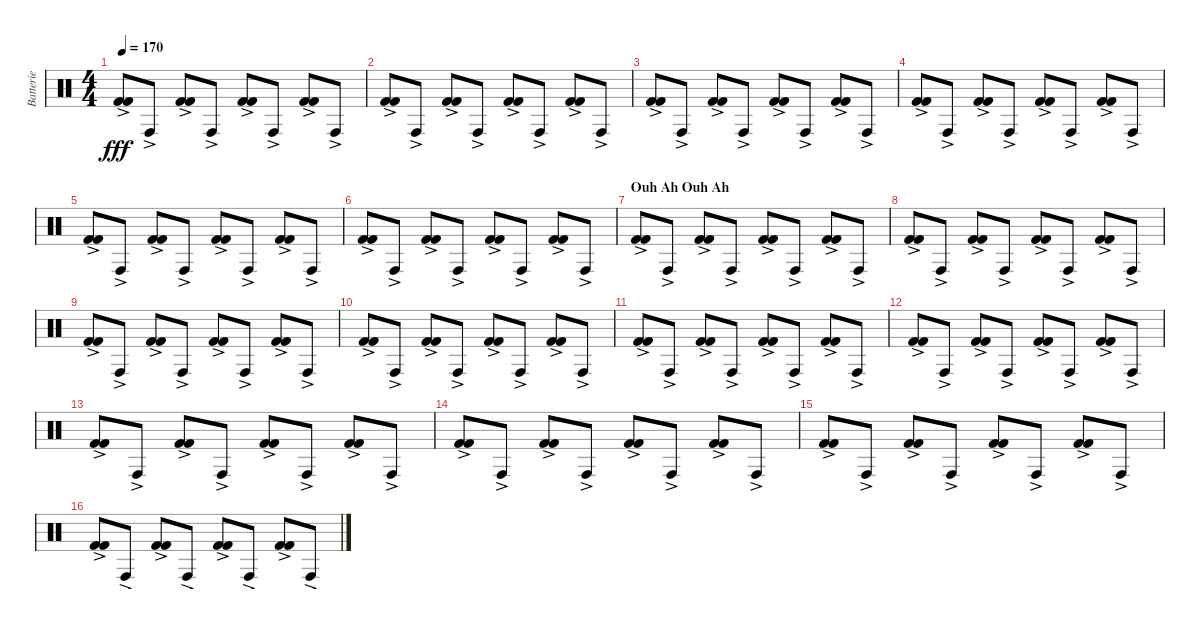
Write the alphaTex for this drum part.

\track ("Batterie" "Batterie") {instrument percussion}
\staff {score}
\articulation defaults
\ts (4 4)
\tempo 170
\clef neutral
\ks c
("Kick (hit) 2"{ac} "Kick (hit) 2"{ac}).8{dy fff} "Conga high (hit)"{ac}.8 ("Kick (hit) 2"{ac} "Kick (hit) 2"{ac}).8 "Conga high (hit)"{ac}.8 ("Kick (hit) 2"{ac} "Kick (hit) 2"{ac}).8 "Conga high (hit)"{ac}.8 ("Kick (hit) 2"{ac} "Kick (hit) 2"{ac}).8 "Conga high (hit)"{ac}.8 |
("Kick (hit) 2"{ac} "Kick (hit) 2"{ac}).8 "Conga high (hit)"{ac}.8 ("Kick (hit) 2"{ac} "Kick (hit) 2"{ac}).8 "Conga high (hit)"{ac}.8 ("Kick (hit) 2"{ac} "Kick (hit) 2"{ac}).8 "Conga high (hit)"{ac}.8 ("Kick (hit) 2"{ac} "Kick (hit) 2"{ac}).8 "Conga high (hit)"{ac}.8 |
("Kick (hit) 2"{ac} "Kick (hit) 2"{ac}).8 "Conga high (hit)"{ac}.8 ("Kick (hit) 2"{ac} "Kick (hit) 2"{ac}).8 "Conga high (hit)"{ac}.8 ("Kick (hit) 2"{ac} "Kick (hit) 2"{ac}).8 "Conga high (hit)"{ac}.8 ("Kick (hit) 2"{ac} "Kick (hit) 2"{ac}).8 "Conga high (hit)"{ac}.8 |
("Kick (hit) 2"{ac} "Kick (hit) 2"{ac}).8 "Conga high (hit)"{ac}.8 ("Kick (hit) 2"{ac} "Kick (hit) 2"{ac}).8 "Conga high (hit)"{ac}.8 ("Kick (hit) 2"{ac} "Kick (hit) 2"{ac}).8 "Conga high (hit)"{ac}.8 ("Kick (hit) 2"{ac} "Kick (hit) 2"{ac}).8 "Conga high (hit)"{ac}.8 |
("Kick (hit) 2"{ac} "Kick (hit) 2"{ac}).8 "Conga high (hit)"{ac}.8 ("Kick (hit) 2"{ac} "Kick (hit) 2"{ac}).8 "Conga high (hit)"{ac}.8 ("Kick (hit) 2"{ac} "Kick (hit) 2"{ac}).8 "Conga high (hit)"{ac}.8 ("Kick (hit) 2"{ac} "Kick (hit) 2"{ac}).8 "Conga high (hit)"{ac}.8 |
("Kick (hit) 2"{ac} "Kick (hit) 2"{ac}).8 "Conga high (hit)"{ac}.8 ("Kick (hit) 2"{ac} "Kick (hit) 2"{ac}).8 "Conga high (hit)"{ac}.8 ("Kick (hit) 2"{ac} "Kick (hit) 2"{ac}).8 "Conga high (hit)"{ac}.8 ("Kick (hit) 2"{ac} "Kick (hit) 2"{ac}).8 "Conga high (hit)"{ac}.8 |
\section ("" "Ouh Ah Ouh Ah")
("Kick (hit) 2"{ac} "Kick (hit) 2"{ac}).8 "Conga high (hit)"{ac}.8 ("Kick (hit) 2"{ac} "Kick (hit) 2"{ac}).8 "Conga high (hit)"{ac}.8 ("Kick (hit) 2"{ac} "Kick (hit) 2"{ac}).8 "Conga high (hit)"{ac}.8 ("Kick (hit) 2"{ac} "Kick (hit) 2"{ac}).8 "Conga high (hit)"{ac}.8 |
("Kick (hit) 2"{ac} "Kick (hit) 2"{ac}).8 "Conga high (hit)"{ac}.8 ("Kick (hit) 2"{ac} "Kick (hit) 2"{ac}).8 "Conga high (hit)"{ac}.8 ("Kick (hit) 2"{ac} "Kick (hit) 2"{ac}).8 "Conga high (hit)"{ac}.8 ("Kick (hit) 2"{ac} "Kick (hit) 2"{ac}).8 "Conga high (hit)"{ac}.8 |
("Kick (hit) 2"{ac} "Kick (hit) 2"{ac}).8 "Conga high (hit)"{ac}.8 ("Kick (hit) 2"{ac} "Kick (hit) 2"{ac}).8 "Conga high (hit)"{ac}.8 ("Kick (hit) 2"{ac} "Kick (hit) 2"{ac}).8 "Conga high (hit)"{ac}.8 ("Kick (hit) 2"{ac} "Kick (hit) 2"{ac}).8 "Conga high (hit)"{ac}.8 |
("Kick (hit) 2"{ac} "Kick (hit) 2"{ac}).8 "Conga high (hit)"{ac}.8 ("Kick (hit) 2"{ac} "Kick (hit) 2"{ac}).8 "Conga high (hit)"{ac}.8 ("Kick (hit) 2"{ac} "Kick (hit) 2"{ac}).8 "Conga high (hit)"{ac}.8 ("Kick (hit) 2"{ac} "Kick (hit) 2"{ac}).8 "Conga high (hit)"{ac}.8 |
("Kick (hit) 2"{ac} "Kick (hit) 2"{ac}).8 "Conga high (hit)"{ac}.8 ("Kick (hit) 2"{ac} "Kick (hit) 2"{ac}).8 "Conga high (hit)"{ac}.8 ("Kick (hit) 2"{ac} "Kick (hit) 2"{ac}).8 "Conga high (hit)"{ac}.8 ("Kick (hit) 2"{ac} "Kick (hit) 2"{ac}).8 "Conga high (hit)"{ac}.8 |
("Kick (hit) 2"{ac} "Kick (hit) 2"{ac}).8 "Conga high (hit)"{ac}.8 ("Kick (hit) 2"{ac} "Kick (hit) 2"{ac}).8 "Conga high (hit)"{ac}.8 ("Kick (hit) 2"{ac} "Kick (hit) 2"{ac}).8 "Conga high (hit)"{ac}.8 ("Kick (hit) 2"{ac} "Kick (hit) 2"{ac}).8 "Conga high (hit)"{ac}.8 |
("Kick (hit) 2"{ac} "Kick (hit) 2"{ac}).8 "Conga high (hit)"{ac}.8 ("Kick (hit) 2"{ac} "Kick (hit) 2"{ac}).8 "Conga high (hit)"{ac}.8 ("Kick (hit) 2"{ac} "Kick (hit) 2"{ac}).8 "Conga high (hit)"{ac}.8 ("Kick (hit) 2"{ac} "Kick (hit) 2"{ac}).8 "Conga high (hit)"{ac}.8 |
("Kick (hit) 2"{ac} "Kick (hit) 2"{ac}).8 "Conga high (hit)"{ac}.8 ("Kick (hit) 2"{ac} "Kick (hit) 2"{ac}).8 "Conga high (hit)"{ac}.8 ("Kick (hit) 2"{ac} "Kick (hit) 2"{ac}).8 "Conga high (hit)"{ac}.8 ("Kick (hit) 2"{ac} "Kick (hit) 2"{ac}).8 "Conga high (hit)"{ac}.8 |
("Kick (hit) 2"{ac} "Kick (hit) 2"{ac}).8 "Conga high (hit)"{ac}.8 ("Kick (hit) 2"{ac} "Kick (hit) 2"{ac}).8 "Conga high (hit)"{ac}.8 ("Kick (hit) 2"{ac} "Kick (hit) 2"{ac}).8 "Conga high (hit)"{ac}.8 ("Kick (hit) 2"{ac} "Kick (hit) 2"{ac}).8 "Conga high (hit)"{ac}.8 |
("Kick (hit) 2"{ac} "Kick (hit) 2"{ac}).8 "Conga high (hit)"{ac}.8 ("Kick (hit) 2"{ac} "Kick (hit) 2"{ac}).8 "Conga high (hit)"{ac}.8 ("Kick (hit) 2"{ac} "Kick (hit) 2"{ac}).8 "Conga high (hit)"{ac}.8 ("Kick (hit) 2"{ac} "Kick (hit) 2"{ac}).8 "Conga high (hit)"{ac}.8
